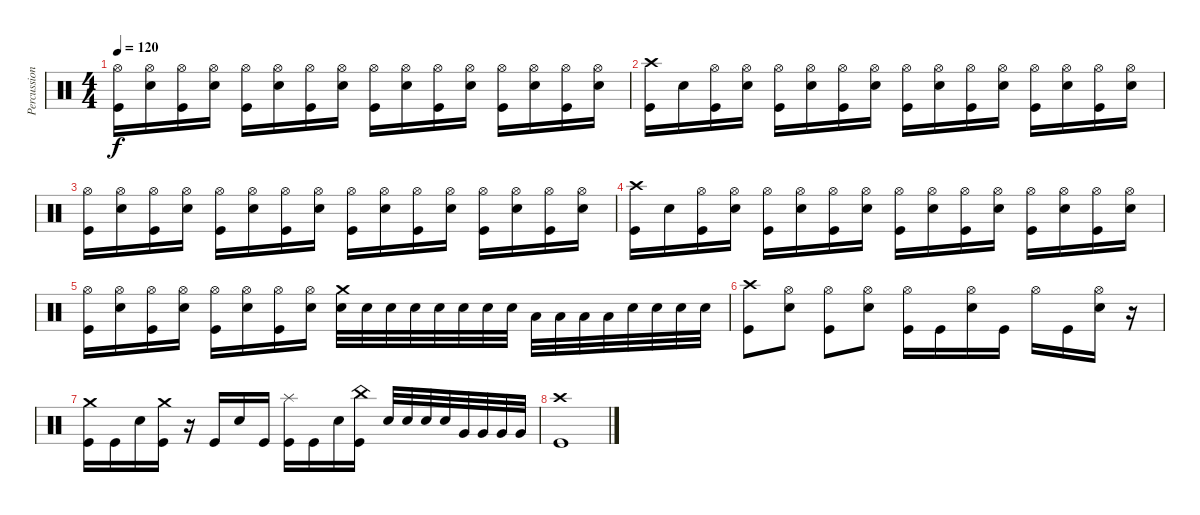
\track ("Percussion" "Percussion") {instrument percussion}
\staff {score}
\articulation defaults
\ts (4 4)
\tempo 120
\clef neutral
\ks c
("Hi-Hat (open)" "Kick (hit)").16{dy f} ("Hi-Hat (open)" "Electric Snare (hit)").16 ("Hi-Hat (open)" "Kick (hit)").16 ("Hi-Hat (open)" "Electric Snare (hit)").16 ("Hi-Hat (open)" "Kick (hit)").16 ("Hi-Hat (open)" "Electric Snare (hit)").16 ("Hi-Hat (open)" "Kick (hit)").16 ("Hi-Hat (open)" "Electric Snare (hit)").16 ("Hi-Hat (open)" "Kick (hit)").16 ("Hi-Hat (open)" "Electric Snare (hit)").16 ("Hi-Hat (open)" "Kick (hit)").16 ("Hi-Hat (open)" "Electric Snare (hit)").16 ("Hi-Hat (open)" "Kick (hit)").16 ("Hi-Hat (open)" "Electric Snare (hit)").16 ("Hi-Hat (open)" "Kick (hit)").16 ("Hi-Hat (open)" "Electric Snare (hit)").16 |
("Crash high (hit)" "Kick (hit)").16 "Electric Snare (hit)".16 ("Hi-Hat (open)" "Kick (hit)").16 ("Hi-Hat (open)" "Electric Snare (hit)").16 ("Hi-Hat (open)" "Kick (hit)").16 ("Hi-Hat (open)" "Electric Snare (hit)").16 ("Hi-Hat (open)" "Kick (hit)").16 ("Hi-Hat (open)" "Electric Snare (hit)").16 ("Hi-Hat (open)" "Kick (hit)").16 ("Hi-Hat (open)" "Electric Snare (hit)").16 ("Hi-Hat (open)" "Kick (hit)").16 ("Hi-Hat (open)" "Electric Snare (hit)").16 ("Hi-Hat (open)" "Kick (hit)").16 ("Hi-Hat (open)" "Electric Snare (hit)").16 ("Hi-Hat (open)" "Kick (hit)").16 ("Hi-Hat (open)" "Electric Snare (hit)").16 |
("Hi-Hat (open)" "Kick (hit)").16 ("Hi-Hat (open)" "Electric Snare (hit)").16 ("Hi-Hat (open)" "Kick (hit)").16 ("Hi-Hat (open)" "Electric Snare (hit)").16 ("Hi-Hat (open)" "Kick (hit)").16 ("Hi-Hat (open)" "Electric Snare (hit)").16 ("Hi-Hat (open)" "Kick (hit)").16 ("Hi-Hat (open)" "Electric Snare (hit)").16 ("Hi-Hat (open)" "Kick (hit)").16 ("Hi-Hat (open)" "Electric Snare (hit)").16 ("Hi-Hat (open)" "Kick (hit)").16 ("Hi-Hat (open)" "Electric Snare (hit)").16 ("Hi-Hat (open)" "Kick (hit)").16 ("Hi-Hat (open)" "Electric Snare (hit)").16 ("Hi-Hat (open)" "Kick (hit)").16 ("Hi-Hat (open)" "Electric Snare (hit)").16 |
("Crash high (hit)" "Kick (hit)").16 "Electric Snare (hit)".16 ("Hi-Hat (open)" "Kick (hit)").16 ("Hi-Hat (open)" "Electric Snare (hit)").16 ("Hi-Hat (open)" "Kick (hit)").16 ("Hi-Hat (open)" "Electric Snare (hit)").16 ("Hi-Hat (open)" "Kick (hit)").16 ("Hi-Hat (open)" "Electric Snare (hit)").16 ("Hi-Hat (open)" "Kick (hit)").16 ("Hi-Hat (open)" "Electric Snare (hit)").16 ("Hi-Hat (open)" "Kick (hit)").16 ("Hi-Hat (open)" "Electric Snare (hit)").16 ("Hi-Hat (open)" "Kick (hit)").16 ("Hi-Hat (open)" "Electric Snare (hit)").16 ("Hi-Hat (open)" "Kick (hit)").16 ("Hi-Hat (open)" "Electric Snare (hit)").16 |
("Hi-Hat (open)" "Kick (hit)").16 ("Hi-Hat (open)" "Electric Snare (hit)").16 ("Hi-Hat (open)" "Kick (hit)").16 ("Hi-Hat (open)" "Electric Snare (hit)").16 ("Hi-Hat (open)" "Kick (hit)").16 ("Hi-Hat (open)" "Electric Snare (hit)").16 ("Hi-Hat (open)" "Kick (hit)").16 ("Hi-Hat (open)" "Electric Snare (hit)").16 ("Crash medium (hit)" "Electric Snare (hit)").32 "Electric Snare (hit)".32 "Electric Snare (hit)".32 "Electric Snare (hit)".32 "Electric Snare (hit)".32 "Electric Snare (hit)".32 "Electric Snare (hit)".32 "Electric Snare (hit)".32 "Low Tom (hit)".32 "Low Tom (hit)".32 "Low Tom (hit)".32 "Low Tom (hit)".32 "Electric Snare (hit)".32 "Electric Snare (hit)".32 "Electric Snare (hit)".32 "Electric Snare (hit)".32 |
("Kick (hit)" "Crash high (hit)").8 ("Electric Snare (hit)" "Hi-Hat (open)").8 ("Kick (hit)" "Hi-Hat (open)").8 ("Electric Snare (hit)" "Hi-Hat (open)").8 ("Hi-Hat (open)" "Kick (hit)").16 "Kick (hit)".16 ("Hi-Hat (open)" "Electric Snare (hit)").16 "Kick (hit)".16 "Hi-Hat (open)".16 "Kick (hit)".16 ("Hi-Hat (open)" "Electric Snare (hit)").16 r.16 |
("Crash medium (hit)" "Kick (hit)").16 "Kick (hit)".16 "Electric Snare (hit)".16 ("Crash medium (hit)" "Kick (hit)").16 r.16 "Kick (hit)".16 "Electric Snare (hit)".16 "Kick (hit)".16 ("Splash (hit)" "Kick (hit)").16 "Kick (hit)".16 "Electric Snare (hit)".16 ("China (hit)" "Kick (hit)").16 "Electric Snare (hit)".32 "Electric Snare (hit)".32 "Electric Snare (hit)".32 "Electric Snare (hit)".32 "Very Low Tom (hit)".32 "Very Low Tom (hit)".32 "Very Low Tom (hit)".32 "Very Low Tom (hit)".32 |
("Crash high (hit)" "Kick (hit)").1
